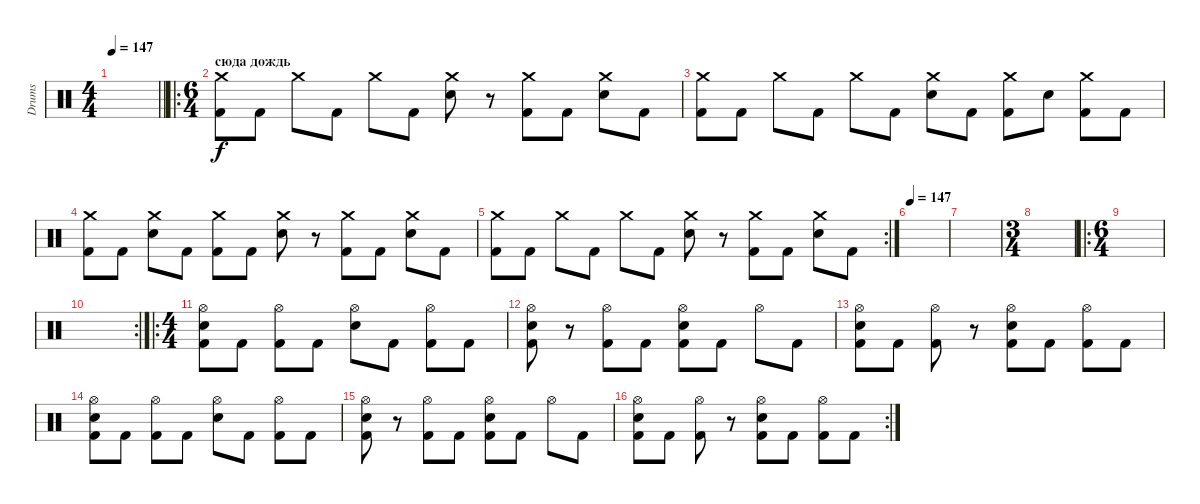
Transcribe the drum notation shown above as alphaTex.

\track ("Drums" "Drums") {instrument percussion}
\staff {score}
\articulation defaults
\ts (4 4)
\tempo 147
\clef neutral
\barLineRight lightlight
\ks c
|
\ro
\ts (6 4)
\section ("" "сюда дождь")
("Crash medium (hit)" "Kick (hit) 2").8 "Kick (hit) 2".8 "Crash medium (hit)".8 "Kick (hit) 2".8 "Crash medium (hit)".8 "Kick (hit) 2".8 ("Crash medium (hit)" "Electric Snare (hit)").8 r.8 ("Crash medium (hit)" "Kick (hit) 2").8 "Kick (hit) 2".8 ("Crash medium (hit)" "Electric Snare (hit)").8 "Kick (hit) 2".8 |
("Crash medium (hit)" "Kick (hit) 2").8 "Kick (hit) 2".8 "Crash medium (hit)".8 "Kick (hit) 2".8 "Crash medium (hit)".8 "Kick (hit) 2".8 ("Crash medium (hit)" "Electric Snare (hit)").8 "Kick (hit) 2".8 ("Crash medium (hit)" "Kick (hit) 2").8 "Electric Snare (hit)".8 ("Crash medium (hit)" "Kick (hit) 2").8 "Kick (hit) 2".8 |
("Crash medium (hit)" "Kick (hit) 2").8 "Kick (hit) 2".8 ("Crash medium (hit)" "Electric Snare (hit)").8 "Kick (hit) 2".8 ("Crash medium (hit)" "Kick (hit) 2").8 "Kick (hit) 2".8 ("Crash medium (hit)" "Electric Snare (hit)").8 r.8 ("Crash medium (hit)" "Kick (hit) 2").8 "Kick (hit) 2".8 ("Crash medium (hit)" "Electric Snare (hit)").8 "Kick (hit) 2".8 |
\rc 2
("Crash medium (hit)" "Kick (hit) 2").8 "Kick (hit) 2".8 "Crash medium (hit)".8 "Kick (hit) 2".8 "Crash medium (hit)".8 "Kick (hit) 2".8 ("Crash medium (hit)" "Electric Snare (hit)").8 r.8 ("Crash medium (hit)" "Kick (hit) 2").8 "Kick (hit) 2".8 ("Crash medium (hit)" "Electric Snare (hit)").8 "Kick (hit) 2".8 |
\tempo 147
|
|
\ts (3 4)
|
\ro
\ts (6 4)
|
\rc 2
|
\ro
\ts (4 4)
("Hi-Hat (open)" "Electric Snare (hit)" "Kick (hit) 2").8 "Kick (hit) 2".8 ("Hi-Hat (open)" "Kick (hit) 2").8 "Kick (hit) 2".8 ("Hi-Hat (open)" "Electric Snare (hit)").8 "Kick (hit) 2".8 ("Hi-Hat (open)" "Kick (hit) 2").8 "Kick (hit) 2".8 |
("Hi-Hat (open)" "Electric Snare (hit)" "Kick (hit) 2").8 r.8 ("Hi-Hat (open)" "Kick (hit) 2").8 "Kick (hit) 2".8 ("Hi-Hat (open)" "Electric Snare (hit)" "Kick (hit) 2").8 "Kick (hit) 2".8 "Hi-Hat (open)".8 "Kick (hit) 2".8 |
("Hi-Hat (open)" "Electric Snare (hit)" "Kick (hit) 2").8 "Kick (hit) 2".8 ("Hi-Hat (open)" "Kick (hit) 2").8 r.8 ("Hi-Hat (open)" "Electric Snare (hit)" "Kick (hit) 2").8 "Kick (hit) 2".8 ("Hi-Hat (open)" "Kick (hit) 2").8 "Kick (hit) 2".8 |
("Hi-Hat (open)" "Electric Snare (hit)" "Kick (hit) 2").8 "Kick (hit) 2".8 ("Hi-Hat (open)" "Kick (hit) 2").8 "Kick (hit) 2".8 ("Hi-Hat (open)" "Electric Snare (hit)").8 "Kick (hit) 2".8 ("Hi-Hat (open)" "Kick (hit) 2").8 "Kick (hit) 2".8 |
("Hi-Hat (open)" "Electric Snare (hit)" "Kick (hit) 2").8 r.8 ("Hi-Hat (open)" "Kick (hit) 2").8 "Kick (hit) 2".8 ("Hi-Hat (open)" "Electric Snare (hit)" "Kick (hit) 2").8 "Kick (hit) 2".8 "Hi-Hat (open)".8 "Kick (hit) 2".8 |
\rc 2
("Hi-Hat (open)" "Electric Snare (hit)" "Kick (hit) 2").8 "Kick (hit) 2".8 ("Hi-Hat (open)" "Kick (hit) 2").8 r.8 ("Hi-Hat (open)" "Electric Snare (hit)" "Kick (hit) 2").8 "Kick (hit) 2".8 ("Hi-Hat (open)" "Kick (hit) 2").8 "Kick (hit) 2".8
